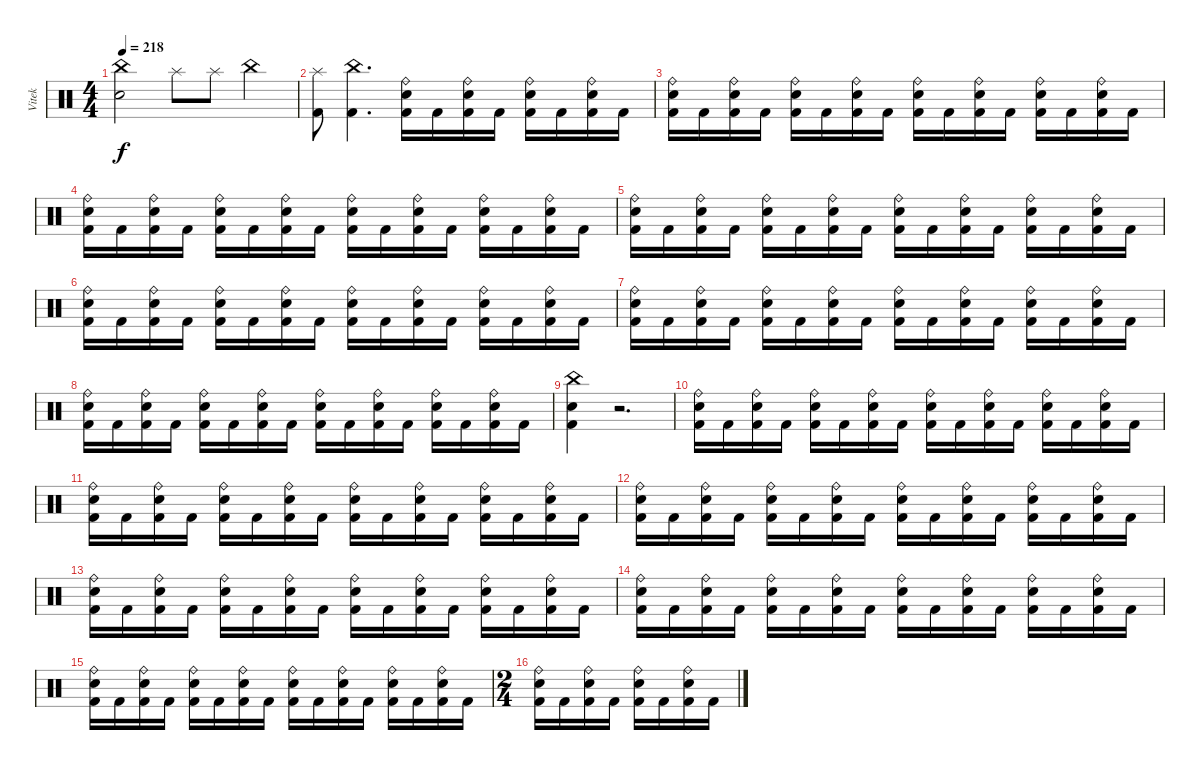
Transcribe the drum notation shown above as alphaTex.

\track ("Vitek" "Vitek") {instrument percussion}
\staff {score}
\articulation defaults
\ts (4 4)
\tempo 218
\clef neutral
\ks c
("China (hit)" "Electric Snare (hit)").2{dy f} "Splash (hit)".8 "Splash (hit)".8 "China (hit)".4 |
("Splash (hit)" "Kick (hit) 2").8 ("China (hit)" "Kick (hit) 2").4{d} ("Ride (bell)" "Electric Snare (hit)" "Kick (hit) 2").16 "Kick (hit) 2".16 ("Ride (bell)" "Electric Snare (hit)" "Kick (hit) 2").16 "Kick (hit) 2".16 ("Ride (bell)" "Electric Snare (hit)" "Kick (hit) 2").16 "Kick (hit) 2".16 ("Ride (bell)" "Electric Snare (hit)" "Kick (hit) 2").16 "Kick (hit) 2".16 |
("Ride (bell)" "Electric Snare (hit)" "Kick (hit) 2").16 "Kick (hit) 2".16 ("Ride (bell)" "Electric Snare (hit)" "Kick (hit) 2").16 "Kick (hit) 2".16 ("Ride (bell)" "Electric Snare (hit)" "Kick (hit) 2").16 "Kick (hit) 2".16 ("Ride (bell)" "Electric Snare (hit)" "Kick (hit) 2").16 "Kick (hit) 2".16 ("Ride (bell)" "Electric Snare (hit)" "Kick (hit) 2").16 "Kick (hit) 2".16 ("Ride (bell)" "Electric Snare (hit)" "Kick (hit) 2").16 "Kick (hit) 2".16 ("Ride (bell)" "Electric Snare (hit)" "Kick (hit) 2").16 "Kick (hit) 2".16 ("Ride (bell)" "Electric Snare (hit)" "Kick (hit) 2").16 "Kick (hit) 2".16 |
("Ride (bell)" "Electric Snare (hit)" "Kick (hit) 2").16 "Kick (hit) 2".16 ("Ride (bell)" "Electric Snare (hit)" "Kick (hit) 2").16 "Kick (hit) 2".16 ("Ride (bell)" "Electric Snare (hit)" "Kick (hit) 2").16 "Kick (hit) 2".16 ("Ride (bell)" "Electric Snare (hit)" "Kick (hit) 2").16 "Kick (hit) 2".16 ("Ride (bell)" "Electric Snare (hit)" "Kick (hit) 2").16 "Kick (hit) 2".16 ("Ride (bell)" "Electric Snare (hit)" "Kick (hit) 2").16 "Kick (hit) 2".16 ("Ride (bell)" "Electric Snare (hit)" "Kick (hit) 2").16 "Kick (hit) 2".16 ("Ride (bell)" "Electric Snare (hit)" "Kick (hit) 2").16 "Kick (hit) 2".16 |
("Ride (bell)" "Electric Snare (hit)" "Kick (hit) 2").16 "Kick (hit) 2".16 ("Ride (bell)" "Electric Snare (hit)" "Kick (hit) 2").16 "Kick (hit) 2".16 ("Ride (bell)" "Electric Snare (hit)" "Kick (hit) 2").16 "Kick (hit) 2".16 ("Ride (bell)" "Electric Snare (hit)" "Kick (hit) 2").16 "Kick (hit) 2".16 ("Ride (bell)" "Electric Snare (hit)" "Kick (hit) 2").16 "Kick (hit) 2".16 ("Ride (bell)" "Electric Snare (hit)" "Kick (hit) 2").16 "Kick (hit) 2".16 ("Ride (bell)" "Electric Snare (hit)" "Kick (hit) 2").16 "Kick (hit) 2".16 ("Ride (bell)" "Electric Snare (hit)" "Kick (hit) 2").16 "Kick (hit) 2".16 |
("Ride (bell)" "Electric Snare (hit)" "Kick (hit) 2").16 "Kick (hit) 2".16 ("Ride (bell)" "Electric Snare (hit)" "Kick (hit) 2").16 "Kick (hit) 2".16 ("Ride (bell)" "Electric Snare (hit)" "Kick (hit) 2").16 "Kick (hit) 2".16 ("Ride (bell)" "Electric Snare (hit)" "Kick (hit) 2").16 "Kick (hit) 2".16 ("Ride (bell)" "Electric Snare (hit)" "Kick (hit) 2").16 "Kick (hit) 2".16 ("Ride (bell)" "Electric Snare (hit)" "Kick (hit) 2").16 "Kick (hit) 2".16 ("Ride (bell)" "Electric Snare (hit)" "Kick (hit) 2").16 "Kick (hit) 2".16 ("Ride (bell)" "Electric Snare (hit)" "Kick (hit) 2").16 "Kick (hit) 2".16 |
("Ride (bell)" "Electric Snare (hit)" "Kick (hit) 2").16 "Kick (hit) 2".16 ("Ride (bell)" "Electric Snare (hit)" "Kick (hit) 2").16 "Kick (hit) 2".16 ("Ride (bell)" "Electric Snare (hit)" "Kick (hit) 2").16 "Kick (hit) 2".16 ("Ride (bell)" "Electric Snare (hit)" "Kick (hit) 2").16 "Kick (hit) 2".16 ("Ride (bell)" "Electric Snare (hit)" "Kick (hit) 2").16 "Kick (hit) 2".16 ("Ride (bell)" "Electric Snare (hit)" "Kick (hit) 2").16 "Kick (hit) 2".16 ("Ride (bell)" "Electric Snare (hit)" "Kick (hit) 2").16 "Kick (hit) 2".16 ("Ride (bell)" "Electric Snare (hit)" "Kick (hit) 2").16 "Kick (hit) 2".16 |
("Ride (bell)" "Electric Snare (hit)" "Kick (hit) 2").16 "Kick (hit) 2".16 ("Ride (bell)" "Electric Snare (hit)" "Kick (hit) 2").16 "Kick (hit) 2".16 ("Ride (bell)" "Electric Snare (hit)" "Kick (hit) 2").16 "Kick (hit) 2".16 ("Ride (bell)" "Electric Snare (hit)" "Kick (hit) 2").16 "Kick (hit) 2".16 ("Ride (bell)" "Electric Snare (hit)" "Kick (hit) 2").16 "Kick (hit) 2".16 ("Ride (bell)" "Electric Snare (hit)" "Kick (hit) 2").16 "Kick (hit) 2".16 ("Ride (bell)" "Electric Snare (hit)" "Kick (hit) 2").16 "Kick (hit) 2".16 ("Ride (bell)" "Electric Snare (hit)" "Kick (hit) 2").16 "Kick (hit) 2".16 |
("China (hit)" "Electric Snare (hit)" "Kick (hit) 2").4 r.2{d} |
("Ride (bell)" "Electric Snare (hit)" "Kick (hit) 2").16 "Kick (hit) 2".16 ("Ride (bell)" "Electric Snare (hit)" "Kick (hit) 2").16 "Kick (hit) 2".16 ("Ride (bell)" "Electric Snare (hit)" "Kick (hit) 2").16 "Kick (hit) 2".16 ("Ride (bell)" "Electric Snare (hit)" "Kick (hit) 2").16 "Kick (hit) 2".16 ("Ride (bell)" "Electric Snare (hit)" "Kick (hit) 2").16 "Kick (hit) 2".16 ("Ride (bell)" "Electric Snare (hit)" "Kick (hit) 2").16 "Kick (hit) 2".16 ("Ride (bell)" "Electric Snare (hit)" "Kick (hit) 2").16 "Kick (hit) 2".16 ("Ride (bell)" "Electric Snare (hit)" "Kick (hit) 2").16 "Kick (hit) 2".16 |
("Ride (bell)" "Electric Snare (hit)" "Kick (hit) 2").16 "Kick (hit) 2".16 ("Ride (bell)" "Electric Snare (hit)" "Kick (hit) 2").16 "Kick (hit) 2".16 ("Ride (bell)" "Electric Snare (hit)" "Kick (hit) 2").16 "Kick (hit) 2".16 ("Ride (bell)" "Electric Snare (hit)" "Kick (hit) 2").16 "Kick (hit) 2".16 ("Ride (bell)" "Electric Snare (hit)" "Kick (hit) 2").16 "Kick (hit) 2".16 ("Ride (bell)" "Electric Snare (hit)" "Kick (hit) 2").16 "Kick (hit) 2".16 ("Ride (bell)" "Electric Snare (hit)" "Kick (hit) 2").16 "Kick (hit) 2".16 ("Ride (bell)" "Electric Snare (hit)" "Kick (hit) 2").16 "Kick (hit) 2".16 |
("Ride (bell)" "Electric Snare (hit)" "Kick (hit) 2").16 "Kick (hit) 2".16 ("Ride (bell)" "Electric Snare (hit)" "Kick (hit) 2").16 "Kick (hit) 2".16 ("Ride (bell)" "Electric Snare (hit)" "Kick (hit) 2").16 "Kick (hit) 2".16 ("Ride (bell)" "Electric Snare (hit)" "Kick (hit) 2").16 "Kick (hit) 2".16 ("Ride (bell)" "Electric Snare (hit)" "Kick (hit) 2").16 "Kick (hit) 2".16 ("Ride (bell)" "Electric Snare (hit)" "Kick (hit) 2").16 "Kick (hit) 2".16 ("Ride (bell)" "Electric Snare (hit)" "Kick (hit) 2").16 "Kick (hit) 2".16 ("Ride (bell)" "Electric Snare (hit)" "Kick (hit) 2").16 "Kick (hit) 2".16 |
("Ride (bell)" "Electric Snare (hit)" "Kick (hit) 2").16 "Kick (hit) 2".16 ("Ride (bell)" "Electric Snare (hit)" "Kick (hit) 2").16 "Kick (hit) 2".16 ("Ride (bell)" "Electric Snare (hit)" "Kick (hit) 2").16 "Kick (hit) 2".16 ("Ride (bell)" "Electric Snare (hit)" "Kick (hit) 2").16 "Kick (hit) 2".16 ("Ride (bell)" "Electric Snare (hit)" "Kick (hit) 2").16 "Kick (hit) 2".16 ("Ride (bell)" "Electric Snare (hit)" "Kick (hit) 2").16 "Kick (hit) 2".16 ("Ride (bell)" "Electric Snare (hit)" "Kick (hit) 2").16 "Kick (hit) 2".16 ("Ride (bell)" "Electric Snare (hit)" "Kick (hit) 2").16 "Kick (hit) 2".16 |
("Ride (bell)" "Electric Snare (hit)" "Kick (hit) 2").16 "Kick (hit) 2".16 ("Ride (bell)" "Electric Snare (hit)" "Kick (hit) 2").16 "Kick (hit) 2".16 ("Ride (bell)" "Electric Snare (hit)" "Kick (hit) 2").16 "Kick (hit) 2".16 ("Ride (bell)" "Electric Snare (hit)" "Kick (hit) 2").16 "Kick (hit) 2".16 ("Ride (bell)" "Electric Snare (hit)" "Kick (hit) 2").16 "Kick (hit) 2".16 ("Ride (bell)" "Electric Snare (hit)" "Kick (hit) 2").16 "Kick (hit) 2".16 ("Ride (bell)" "Electric Snare (hit)" "Kick (hit) 2").16 "Kick (hit) 2".16 ("Ride (bell)" "Electric Snare (hit)" "Kick (hit) 2").16 "Kick (hit) 2".16 |
("Ride (bell)" "Electric Snare (hit)" "Kick (hit) 2").16 "Kick (hit) 2".16 ("Ride (bell)" "Electric Snare (hit)" "Kick (hit) 2").16 "Kick (hit) 2".16 ("Ride (bell)" "Electric Snare (hit)" "Kick (hit) 2").16 "Kick (hit) 2".16 ("Ride (bell)" "Electric Snare (hit)" "Kick (hit) 2").16 "Kick (hit) 2".16 ("Ride (bell)" "Electric Snare (hit)" "Kick (hit) 2").16 "Kick (hit) 2".16 ("Ride (bell)" "Electric Snare (hit)" "Kick (hit) 2").16 "Kick (hit) 2".16 ("Ride (bell)" "Electric Snare (hit)" "Kick (hit) 2").16 "Kick (hit) 2".16 ("Ride (bell)" "Electric Snare (hit)" "Kick (hit) 2").16 "Kick (hit) 2".16 |
\ts (2 4)
("Ride (bell)" "Electric Snare (hit)" "Kick (hit) 2").16 "Kick (hit) 2".16 ("Ride (bell)" "Electric Snare (hit)" "Kick (hit) 2").16 "Kick (hit) 2".16 ("Ride (bell)" "Electric Snare (hit)" "Kick (hit) 2").16 "Kick (hit) 2".16 ("Ride (bell)" "Electric Snare (hit)" "Kick (hit) 2").16 "Kick (hit) 2".16
